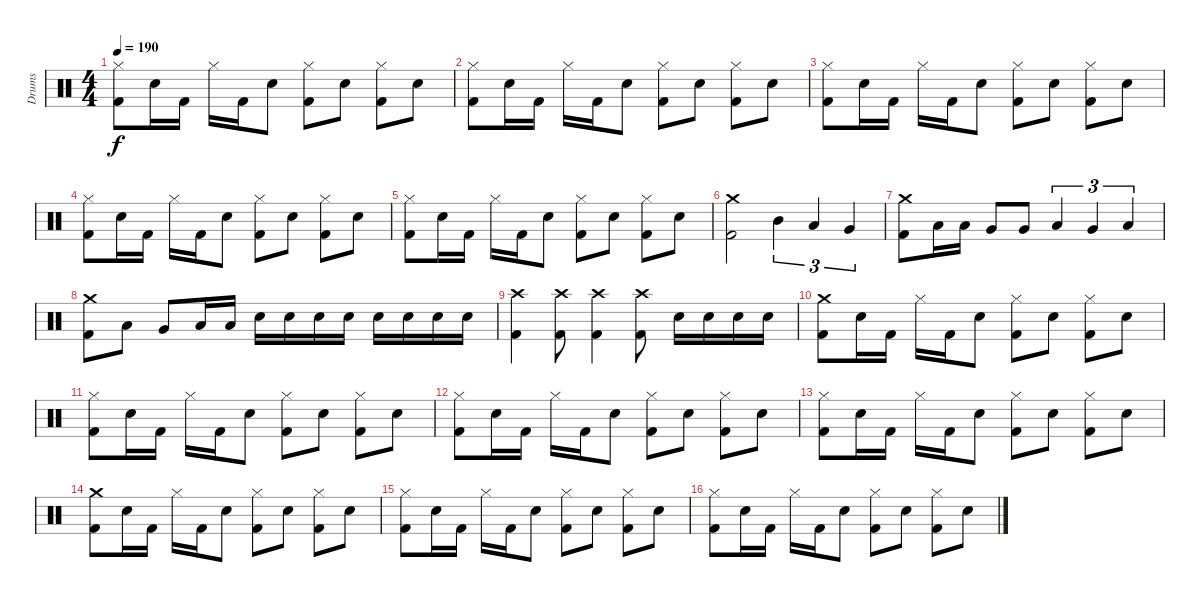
\track ("Drums" "Drums") {instrument percussion}
\staff {score}
\articulation defaults
\ts (4 4)
\tempo 190
\clef neutral
\ks c
("Hi-Hat (closed)" "Kick (hit) 2").8{dy f} "Electric Snare (hit)".16 "Kick (hit) 2".16 "Hi-Hat (closed)".16 "Kick (hit) 2".16 "Electric Snare (hit)".8 ("Hi-Hat (closed)" "Kick (hit) 2").8 "Electric Snare (hit)".8 ("Hi-Hat (closed)" "Kick (hit) 2").8 "Electric Snare (hit)".8 |
("Hi-Hat (closed)" "Kick (hit) 2").8 "Electric Snare (hit)".16 "Kick (hit) 2".16 "Hi-Hat (closed)".16 "Kick (hit) 2".16 "Electric Snare (hit)".8 ("Hi-Hat (closed)" "Kick (hit) 2").8 "Electric Snare (hit)".8 ("Hi-Hat (closed)" "Kick (hit) 2").8 "Electric Snare (hit)".8 |
("Hi-Hat (closed)" "Kick (hit) 2").8 "Electric Snare (hit)".16 "Kick (hit) 2".16 "Hi-Hat (closed)".16 "Kick (hit) 2".16 "Electric Snare (hit)".8 ("Hi-Hat (closed)" "Kick (hit) 2").8 "Electric Snare (hit)".8 ("Hi-Hat (closed)" "Kick (hit) 2").8 "Electric Snare (hit)".8 |
("Hi-Hat (closed)" "Kick (hit) 2").8 "Electric Snare (hit)".16 "Kick (hit) 2".16 "Hi-Hat (closed)".16 "Kick (hit) 2".16 "Electric Snare (hit)".8 ("Hi-Hat (closed)" "Kick (hit) 2").8 "Electric Snare (hit)".8 ("Hi-Hat (closed)" "Kick (hit) 2").8 "Electric Snare (hit)".8 |
("Hi-Hat (closed)" "Kick (hit) 2").8 "Electric Snare (hit)".16 "Kick (hit) 2".16 "Hi-Hat (closed)".16 "Kick (hit) 2".16 "Electric Snare (hit)".8 ("Hi-Hat (closed)" "Kick (hit) 2").8 "Electric Snare (hit)".8 ("Hi-Hat (closed)" "Kick (hit) 2").8 "Electric Snare (hit)".8 |
("Crash medium (hit)" "Kick (hit) 2").2 "Mid Tom (hit)".4{tu (3 2)} "Low Tom (hit)".4{tu (3 2)} "Very Low Tom (hit)".4{tu (3 2)} |
("Crash medium (hit)" "Kick (hit) 2").8 "Low Tom (hit)".16 "Low Tom (hit)".16 "Very Low Tom (hit)".8 "Very Low Tom (hit)".8 "Low Tom (hit)".4{tu (3 2)} "Very Low Tom (hit)".4{tu (3 2)} "Low Floor Tom (hit)".4{tu (3 2)} |
("Crash medium (hit)" "Kick (hit) 2").8 "Low Tom (hit)".8 "Very Low Tom (hit)".8 "Low Tom (hit)".16 "Low Tom (hit)".16 "Electric Snare (hit)".16 "Electric Snare (hit)".16 "Electric Snare (hit)".16 "Electric Snare (hit)".16 "Electric Snare (hit)".16 "Electric Snare (hit)".16 "Electric Snare (hit)".16 "Electric Snare (hit)".16 |
("Crash high (hit)" "Kick (hit) 2").4 ("Crash high (hit)" "Kick (hit) 2").8 ("Crash high (hit)" "Kick (hit) 2").4 ("Crash high (hit)" "Kick (hit) 2").8 "Electric Snare (hit)".16 "Electric Snare (hit)".16 "Electric Snare (hit)".16 "Electric Snare (hit)".16 |
("Crash medium (hit)" "Kick (hit) 2").8 "Electric Snare (hit)".16 "Kick (hit) 2".16 "Hi-Hat (closed)".16 "Kick (hit) 2".16 "Electric Snare (hit)".8 ("Hi-Hat (closed)" "Kick (hit) 2").8 "Electric Snare (hit)".8 ("Hi-Hat (closed)" "Kick (hit) 2").8 "Electric Snare (hit)".8 |
("Hi-Hat (closed)" "Kick (hit) 2").8 "Electric Snare (hit)".16 "Kick (hit) 2".16 "Hi-Hat (closed)".16 "Kick (hit) 2".16 "Electric Snare (hit)".8 ("Hi-Hat (closed)" "Kick (hit) 2").8 "Electric Snare (hit)".8 ("Hi-Hat (closed)" "Kick (hit) 2").8 "Electric Snare (hit)".8 |
("Hi-Hat (closed)" "Kick (hit) 2").8 "Electric Snare (hit)".16 "Kick (hit) 2".16 "Hi-Hat (closed)".16 "Kick (hit) 2".16 "Electric Snare (hit)".8 ("Hi-Hat (closed)" "Kick (hit) 2").8 "Electric Snare (hit)".8 ("Hi-Hat (closed)" "Kick (hit) 2").8 "Electric Snare (hit)".8 |
("Hi-Hat (closed)" "Kick (hit) 2").8 "Electric Snare (hit)".16 "Kick (hit) 2".16 "Hi-Hat (closed)".16 "Kick (hit) 2".16 "Electric Snare (hit)".8 ("Hi-Hat (closed)" "Kick (hit) 2").8 "Electric Snare (hit)".8 ("Hi-Hat (closed)" "Kick (hit) 2").8 "Electric Snare (hit)".8 |
("Crash medium (hit)" "Kick (hit) 2").8 "Electric Snare (hit)".16 "Kick (hit) 2".16 "Hi-Hat (closed)".16 "Kick (hit) 2".16 "Electric Snare (hit)".8 ("Hi-Hat (closed)" "Kick (hit) 2").8 "Electric Snare (hit)".8 ("Hi-Hat (closed)" "Kick (hit) 2").8 "Electric Snare (hit)".8 |
("Hi-Hat (closed)" "Kick (hit) 2").8 "Electric Snare (hit)".16 "Kick (hit) 2".16 "Hi-Hat (closed)".16 "Kick (hit) 2".16 "Electric Snare (hit)".8 ("Hi-Hat (closed)" "Kick (hit) 2").8 "Electric Snare (hit)".8 ("Hi-Hat (closed)" "Kick (hit) 2").8 "Electric Snare (hit)".8 |
("Hi-Hat (closed)" "Kick (hit) 2").8 "Electric Snare (hit)".16 "Kick (hit) 2".16 "Hi-Hat (closed)".16 "Kick (hit) 2".16 "Electric Snare (hit)".8 ("Hi-Hat (closed)" "Kick (hit) 2").8 "Electric Snare (hit)".8 ("Hi-Hat (closed)" "Kick (hit) 2").8 "Electric Snare (hit)".8
